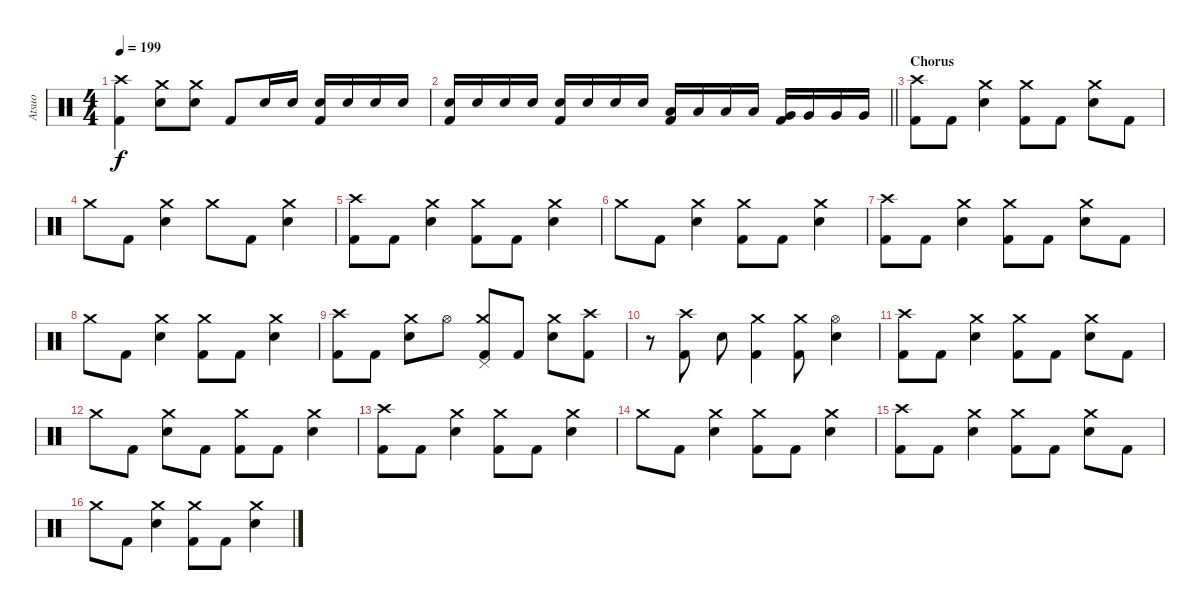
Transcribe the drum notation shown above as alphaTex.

\track ("Atsuo" "Atsuo") {instrument percussion}
\staff {score}
\articulation defaults
\ts (4 4)
\tempo 199
\clef neutral
\ks c
("Crash high (hit)" "Kick (hit) 2").4{dy f} ("Crash medium (hit)" "Electric Snare (hit)").8 ("Crash medium (hit)" "Electric Snare (hit)").8 "Kick (hit) 2".8 "Electric Snare (hit)".16 "Electric Snare (hit)".16 ("Electric Snare (hit)" "Kick (hit) 2").16 "Electric Snare (hit)".16 "Electric Snare (hit)".16 "Electric Snare (hit)".16 |
\barLineRight lightlight
("Electric Snare (hit)" "Kick (hit) 2").16 "Electric Snare (hit)".16 "Electric Snare (hit)".16 "Electric Snare (hit)".16 ("Electric Snare (hit)" "Kick (hit) 2").16 "Electric Snare (hit)".16 "Electric Snare (hit)".16 "Electric Snare (hit)".16 ("Low Tom (hit)" "Kick (hit) 2").16 "Low Tom (hit)".16 "Low Tom (hit)".16 "Low Tom (hit)".16 ("Very Low Tom (hit)" "Kick (hit) 2").16 "Very Low Tom (hit)".16 "Very Low Tom (hit)".16 "Very Low Tom (hit)".16 |
\section ("" "Chorus")
("Crash high (hit)" "Kick (hit) 2").8 "Kick (hit) 2".8 ("Crash medium (hit)" "Electric Snare (hit)").4 ("Crash medium (hit)" "Kick (hit) 2").8 "Kick (hit) 2".8 ("Crash medium (hit)" "Electric Snare (hit)").8 "Kick (hit) 2".8 |
"Crash medium (hit)".8 "Kick (hit) 2".8 ("Crash medium (hit)" "Electric Snare (hit)").4 "Crash medium (hit)".8 "Kick (hit) 2".8 ("Crash medium (hit)" "Electric Snare (hit)").4 |
("Crash high (hit)" "Kick (hit) 2").8 "Kick (hit) 2".8 ("Crash medium (hit)" "Electric Snare (hit)").4 ("Crash medium (hit)" "Kick (hit) 2").8 "Kick (hit) 2".8 ("Crash medium (hit)" "Electric Snare (hit)").4 |
"Crash medium (hit)".8 "Kick (hit) 2".8 ("Crash medium (hit)" "Electric Snare (hit)").4 ("Crash medium (hit)" "Kick (hit) 2").8 "Kick (hit) 2".8 ("Crash medium (hit)" "Electric Snare (hit)").4 |
("Crash high (hit)" "Kick (hit) 2").8 "Kick (hit) 2".8 ("Crash medium (hit)" "Electric Snare (hit)").4 ("Crash medium (hit)" "Kick (hit) 2").8 "Kick (hit) 2".8 ("Crash medium (hit)" "Electric Snare (hit)").8 "Kick (hit) 2".8 |
"Crash medium (hit)".8 "Kick (hit) 2".8 ("Crash medium (hit)" "Electric Snare (hit)").4 ("Crash medium (hit)" "Kick (hit) 2").8 "Kick (hit) 2".8 ("Crash medium (hit)" "Electric Snare (hit)").4 |
("Crash high (hit)" "Kick (hit) 2").8 "Kick (hit) 2".8 ("Crash medium (hit)" "Electric Snare (hit)").8 "Hi-Hat (open)".8 ("Pedal Hi-Hat (hit)" "Crash medium (hit)" "Kick (hit) 2").8 "Kick (hit) 2".8 ("Crash medium (hit)" "Electric Snare (hit)").8 ("Crash high (hit)" "Kick (hit) 2").8 |
r.8 ("Crash high (hit)" "Kick (hit) 2").8 "Electric Snare (hit)".8 ("Crash medium (hit)" "Kick (hit) 2").4 ("Crash medium (hit)" "Kick (hit) 2").8 ("Hi-Hat (open)" "Electric Snare (hit)").4 |
("Crash high (hit)" "Kick (hit) 2").8 "Kick (hit) 2".8 ("Crash medium (hit)" "Electric Snare (hit)").4 ("Crash medium (hit)" "Kick (hit) 2").8 "Kick (hit) 2".8 ("Crash medium (hit)" "Electric Snare (hit)").8 "Kick (hit) 2".8 |
"Crash medium (hit)".8 "Kick (hit) 2".8 ("Crash medium (hit)" "Electric Snare (hit)").8 "Kick (hit) 2".8 ("Crash medium (hit)" "Kick (hit) 2").8 "Kick (hit) 2".8 ("Crash medium (hit)" "Electric Snare (hit)").4 |
("Crash high (hit)" "Kick (hit) 2").8 "Kick (hit) 2".8 ("Crash medium (hit)" "Electric Snare (hit)").4 ("Crash medium (hit)" "Kick (hit) 2").8 "Kick (hit) 2".8 ("Crash medium (hit)" "Electric Snare (hit)").4 |
"Crash medium (hit)".8 "Kick (hit) 2".8 ("Crash medium (hit)" "Electric Snare (hit)").4 ("Crash medium (hit)" "Kick (hit) 2").8 "Kick (hit) 2".8 ("Crash medium (hit)" "Electric Snare (hit)").4 |
("Crash high (hit)" "Kick (hit) 2").8 "Kick (hit) 2".8 ("Crash medium (hit)" "Electric Snare (hit)").4 ("Crash medium (hit)" "Kick (hit) 2").8 "Kick (hit) 2".8 ("Crash medium (hit)" "Electric Snare (hit)").8 "Kick (hit) 2".8 |
"Crash medium (hit)".8 "Kick (hit) 2".8 ("Crash medium (hit)" "Electric Snare (hit)").4 ("Crash medium (hit)" "Kick (hit) 2").8 "Kick (hit) 2".8 ("Crash medium (hit)" "Electric Snare (hit)").4
